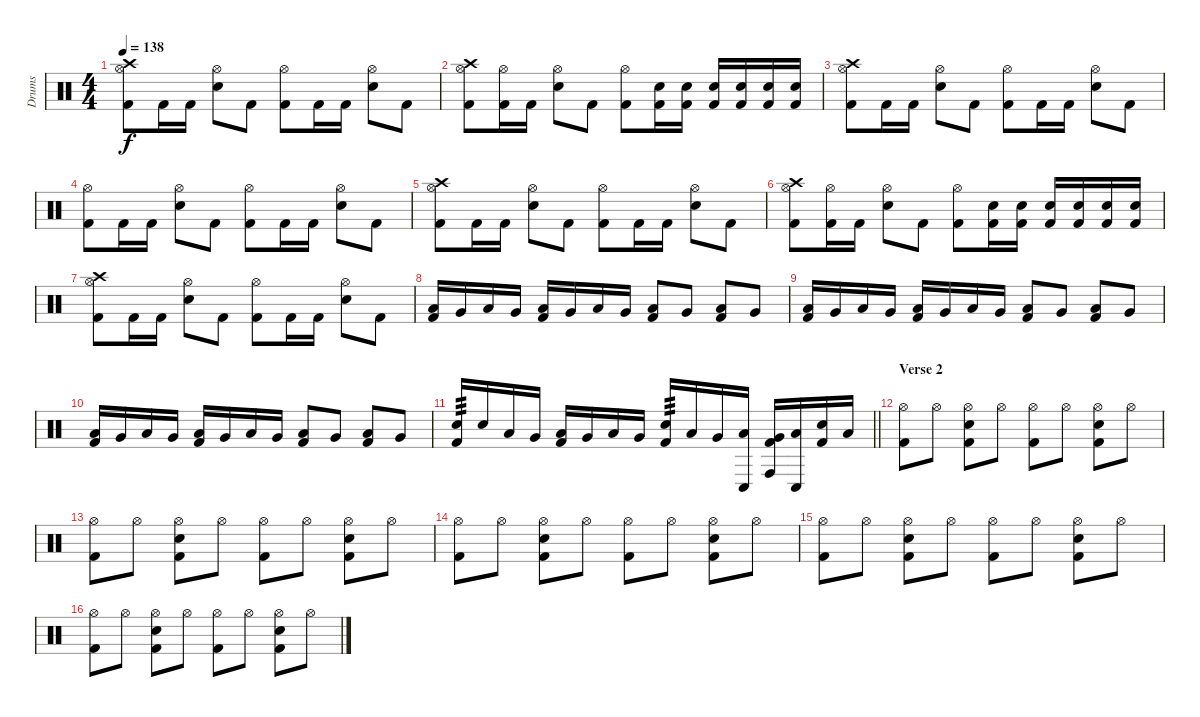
\track ("Drums" "Drums") {instrument percussion}
\staff {score}
\articulation defaults
\ts (4 4)
\tempo 138
\clef neutral
\ks c
("Crash high (hit)" "Hi-Hat (open)" "Kick (hit) 2").8{dy f} "Kick (hit) 2".16 "Kick (hit) 2".16 ("Hi-Hat (open)" "Electric Snare (hit)").8 "Kick (hit) 2".8 ("Hi-Hat (open)" "Kick (hit) 2").8 "Kick (hit) 2".16 "Kick (hit) 2".16 ("Hi-Hat (open)" "Electric Snare (hit)").8 "Kick (hit) 2".8 |
("Crash high (hit)" "Hi-Hat (open)" "Kick (hit) 2").8 ("Hi-Hat (open)" "Kick (hit) 2").16 "Kick (hit) 2".16 ("Hi-Hat (open)" "Electric Snare (hit)").8 "Kick (hit) 2".8 ("Hi-Hat (open)" "Kick (hit) 2").8 ("Electric Snare (hit)" "Kick (hit) 2").16 ("Electric Snare (hit)" "Kick (hit) 2").16 ("Electric Snare (hit)" "Kick (hit) 2").16 ("Electric Snare (hit)" "Kick (hit) 2").16 ("Electric Snare (hit)" "Kick (hit) 2").16 ("Electric Snare (hit)" "Kick (hit) 2").16 |
("Crash high (hit)" "Hi-Hat (open)" "Kick (hit) 2").8 "Kick (hit) 2".16 "Kick (hit) 2".16 ("Hi-Hat (open)" "Electric Snare (hit)").8 "Kick (hit) 2".8 ("Hi-Hat (open)" "Kick (hit) 2").8 "Kick (hit) 2".16 "Kick (hit) 2".16 ("Hi-Hat (open)" "Electric Snare (hit)").8 "Kick (hit) 2".8 |
("Hi-Hat (open)" "Kick (hit) 2").8 "Kick (hit) 2".16 "Kick (hit) 2".16 ("Hi-Hat (open)" "Electric Snare (hit)").8 "Kick (hit) 2".8 ("Hi-Hat (open)" "Kick (hit) 2").8 "Kick (hit) 2".16 "Kick (hit) 2".16 ("Hi-Hat (open)" "Electric Snare (hit)").8 "Kick (hit) 2".8 |
("Crash high (hit)" "Hi-Hat (open)" "Kick (hit) 2").8 "Kick (hit) 2".16 "Kick (hit) 2".16 ("Hi-Hat (open)" "Electric Snare (hit)").8 "Kick (hit) 2".8 ("Hi-Hat (open)" "Kick (hit) 2").8 "Kick (hit) 2".16 "Kick (hit) 2".16 ("Hi-Hat (open)" "Electric Snare (hit)").8 "Kick (hit) 2".8 |
("Crash high (hit)" "Hi-Hat (open)" "Kick (hit) 2").8 ("Hi-Hat (open)" "Kick (hit) 2").16 "Kick (hit) 2".16 ("Hi-Hat (open)" "Electric Snare (hit)").8 "Kick (hit) 2".8 ("Hi-Hat (open)" "Kick (hit) 2").8 ("Electric Snare (hit)" "Kick (hit) 2").16 ("Electric Snare (hit)" "Kick (hit) 2").16 ("Electric Snare (hit)" "Kick (hit) 2").16 ("Electric Snare (hit)" "Kick (hit) 2").16 ("Electric Snare (hit)" "Kick (hit) 2").16 ("Electric Snare (hit)" "Kick (hit) 2").16 |
("Crash high (hit)" "Hi-Hat (open)" "Kick (hit) 2").8 "Kick (hit) 2".16 "Kick (hit) 2".16 ("Hi-Hat (open)" "Electric Snare (hit)").8 "Kick (hit) 2".8 ("Hi-Hat (open)" "Kick (hit) 2").8 "Kick (hit) 2".16 "Kick (hit) 2".16 ("Hi-Hat (open)" "Electric Snare (hit)").8 "Kick (hit) 2".8 |
("Low Floor Tom (hit)" "Kick (hit) 2").16 "Very Low Tom (hit)".16 "Low Floor Tom (hit)".16 "Very Low Tom (hit)".16 ("Low Floor Tom (hit)" "Kick (hit) 2").16 "Very Low Tom (hit)".16 "Low Floor Tom (hit)".16 "Very Low Tom (hit)".16 ("Low Floor Tom (hit)" "Kick (hit) 2").8 "Very Low Tom (hit)".8 ("Low Floor Tom (hit)" "Kick (hit) 2").8 "Very Low Tom (hit)".8 |
("Low Floor Tom (hit)" "Kick (hit) 2").16 "Very Low Tom (hit)".16 "Low Floor Tom (hit)".16 "Very Low Tom (hit)".16 ("Low Floor Tom (hit)" "Kick (hit) 2").16 "Very Low Tom (hit)".16 "Low Floor Tom (hit)".16 "Very Low Tom (hit)".16 ("Low Floor Tom (hit)" "Kick (hit) 2").8 "Very Low Tom (hit)".8 ("Low Floor Tom (hit)" "Kick (hit) 2").8 "Very Low Tom (hit)".8 |
("Low Floor Tom (hit)" "Kick (hit) 2").16 "Very Low Tom (hit)".16 "Low Floor Tom (hit)".16 "Very Low Tom (hit)".16 ("Low Floor Tom (hit)" "Kick (hit) 2").16 "Very Low Tom (hit)".16 "Low Floor Tom (hit)".16 "Very Low Tom (hit)".16 ("Low Floor Tom (hit)" "Kick (hit) 2").8 "Very Low Tom (hit)".8 ("Low Floor Tom (hit)" "Kick (hit) 2").8 "Very Low Tom (hit)".8 |
\barLineRight lightlight
("Electric Snare (hit)" "Kick (hit) 2").16{tp 3} "Electric Snare (hit)".16 "Low Floor Tom (hit)".16 "Very Low Tom (hit)".16 ("Low Floor Tom (hit)" "Kick (hit) 2").16 "Very Low Tom (hit)".16 "Low Floor Tom (hit)".16 "Very Low Tom (hit)".16 ("Electric Snare (hit)" "Kick (hit) 2").16{tp 3} "Low Floor Tom (hit)".16 "Very Low Tom (hit)".16 ("Conga low (hit)" "Low Floor Tom (hit)").16 ("Conga high (hit)" "Very Low Tom (hit)" "Kick (hit) 2").16 ("Conga low (hit)" "Low Floor Tom (hit)").16 ("Electric Snare (hit)" "Kick (hit) 2").16 "Low Floor Tom (hit)".16 |
\section ("" "Verse 2")
("Hi-Hat (open)" "Kick (hit) 2").8 "Hi-Hat (open)".8 ("Electric Snare (hit)" "Hi-Hat (open)" "Kick (hit) 2").8 "Hi-Hat (open)".8 ("Hi-Hat (open)" "Kick (hit) 2").8 "Hi-Hat (open)".8 ("Electric Snare (hit)" "Hi-Hat (open)" "Kick (hit) 2").8 "Hi-Hat (open)".8 |
("Hi-Hat (open)" "Kick (hit) 2").8 "Hi-Hat (open)".8 ("Electric Snare (hit)" "Hi-Hat (open)" "Kick (hit) 2").8 "Hi-Hat (open)".8 ("Hi-Hat (open)" "Kick (hit) 2").8 "Hi-Hat (open)".8 ("Electric Snare (hit)" "Hi-Hat (open)" "Kick (hit) 2").8 "Hi-Hat (open)".8 |
("Hi-Hat (open)" "Kick (hit) 2").8 "Hi-Hat (open)".8 ("Electric Snare (hit)" "Hi-Hat (open)" "Kick (hit) 2").8 "Hi-Hat (open)".8 ("Hi-Hat (open)" "Kick (hit) 2").8 "Hi-Hat (open)".8 ("Electric Snare (hit)" "Hi-Hat (open)" "Kick (hit) 2").8 "Hi-Hat (open)".8 |
("Hi-Hat (open)" "Kick (hit) 2").8 "Hi-Hat (open)".8 ("Electric Snare (hit)" "Hi-Hat (open)" "Kick (hit) 2").8 "Hi-Hat (open)".8 ("Hi-Hat (open)" "Kick (hit) 2").8 "Hi-Hat (open)".8 ("Electric Snare (hit)" "Hi-Hat (open)" "Kick (hit) 2").8 "Hi-Hat (open)".8 |
("Hi-Hat (open)" "Kick (hit) 2").8 "Hi-Hat (open)".8 ("Electric Snare (hit)" "Hi-Hat (open)" "Kick (hit) 2").8 "Hi-Hat (open)".8 ("Hi-Hat (open)" "Kick (hit) 2").8 "Hi-Hat (open)".8 ("Electric Snare (hit)" "Hi-Hat (open)" "Kick (hit) 2").8 "Hi-Hat (open)".8
